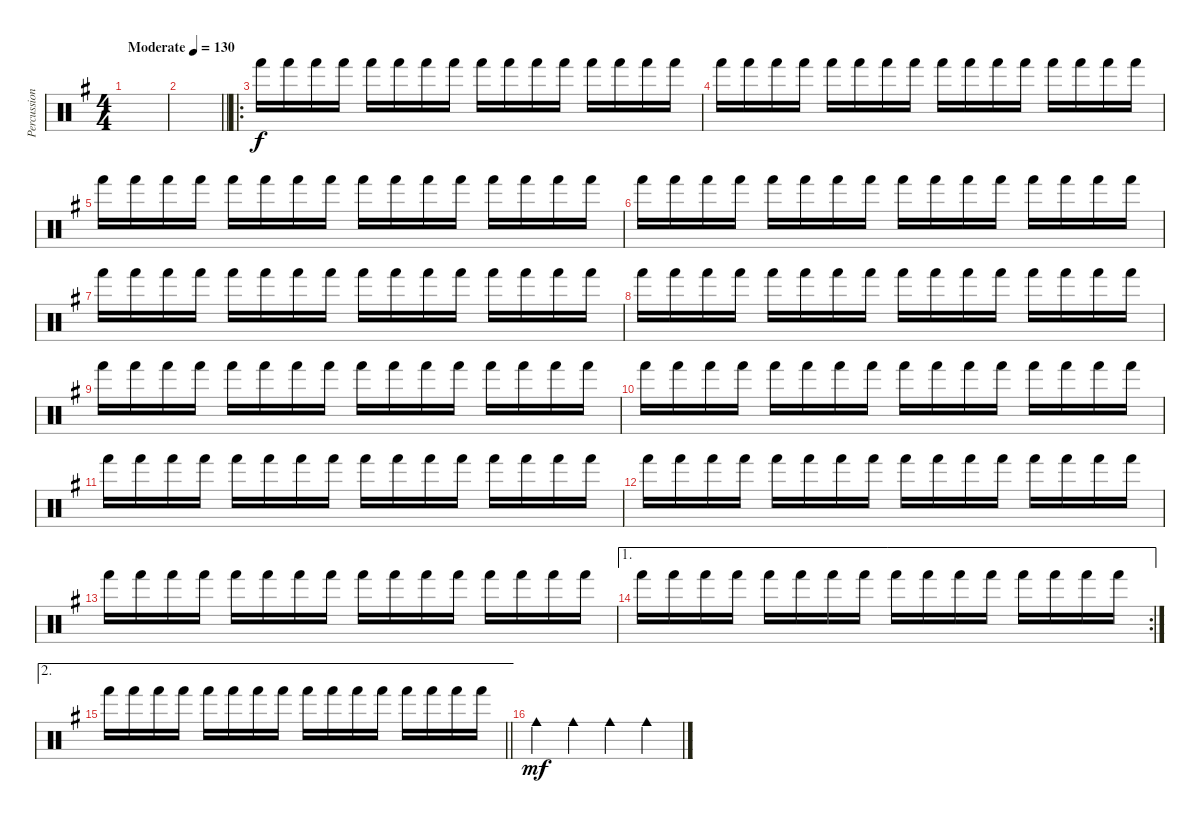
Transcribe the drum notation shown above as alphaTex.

\track ("Percussion" "Percussion") {instrument percussion}
\staff {score}
\articulation defaults
\ts (4 4)
\tempo (130 "Moderate")
\clef neutral
\ks g
|
\barLineRight lightlight
|
\ro "Hand (hit)".16 "Hand (hit)".16 "Hand (hit)".16 "Hand (hit)".16 "Hand (hit)".16 "Hand (hit)".16 "Hand (hit)".16 "Hand (hit)".16 "Hand (hit)".16 "Hand (hit)".16 "Hand (hit)".16 "Hand (hit)".16 "Hand (hit)".16 "Hand (hit)".16 "Hand (hit)".16 "Hand (hit)".16
|
"Hand (hit)".16 "Hand (hit)".16 "Hand (hit)".16 "Hand (hit)".16 "Hand (hit)".16 "Hand (hit)".16 "Hand (hit)".16 "Hand (hit)".16 "Hand (hit)".16 "Hand (hit)".16 "Hand (hit)".16 "Hand (hit)".16 "Hand (hit)".16 "Hand (hit)".16 "Hand (hit)".16 "Hand (hit)".16 |
"Hand (hit)".16 "Hand (hit)".16 "Hand (hit)".16 "Hand (hit)".16 "Hand (hit)".16 "Hand (hit)".16 "Hand (hit)".16 "Hand (hit)".16 "Hand (hit)".16 "Hand (hit)".16 "Hand (hit)".16 "Hand (hit)".16 "Hand (hit)".16 "Hand (hit)".16 "Hand (hit)".16 "Hand (hit)".16 |
"Hand (hit)".16 "Hand (hit)".16 "Hand (hit)".16 "Hand (hit)".16 "Hand (hit)".16 "Hand (hit)".16 "Hand (hit)".16 "Hand (hit)".16 "Hand (hit)".16 "Hand (hit)".16 "Hand (hit)".16 "Hand (hit)".16 "Hand (hit)".16 "Hand (hit)".16 "Hand (hit)".16 "Hand (hit)".16 |
"Hand (hit)".16 "Hand (hit)".16 "Hand (hit)".16 "Hand (hit)".16 "Hand (hit)".16 "Hand (hit)".16 "Hand (hit)".16 "Hand (hit)".16 "Hand (hit)".16 "Hand (hit)".16 "Hand (hit)".16 "Hand (hit)".16 "Hand (hit)".16 "Hand (hit)".16 "Hand (hit)".16 "Hand (hit)".16 |
"Hand (hit)".16 "Hand (hit)".16 "Hand (hit)".16 "Hand (hit)".16 "Hand (hit)".16 "Hand (hit)".16 "Hand (hit)".16 "Hand (hit)".16 "Hand (hit)".16 "Hand (hit)".16 "Hand (hit)".16 "Hand (hit)".16 "Hand (hit)".16 "Hand (hit)".16 "Hand (hit)".16 "Hand (hit)".16 |
"Hand (hit)".16 "Hand (hit)".16 "Hand (hit)".16 "Hand (hit)".16 "Hand (hit)".16 "Hand (hit)".16 "Hand (hit)".16 "Hand (hit)".16 "Hand (hit)".16 "Hand (hit)".16 "Hand (hit)".16 "Hand (hit)".16 "Hand (hit)".16 "Hand (hit)".16 "Hand (hit)".16 "Hand (hit)".16 |
"Hand (hit)".16 "Hand (hit)".16 "Hand (hit)".16 "Hand (hit)".16 "Hand (hit)".16 "Hand (hit)".16 "Hand (hit)".16 "Hand (hit)".16 "Hand (hit)".16 "Hand (hit)".16 "Hand (hit)".16 "Hand (hit)".16 "Hand (hit)".16 "Hand (hit)".16 "Hand (hit)".16 "Hand (hit)".16 |
"Hand (hit)".16 "Hand (hit)".16 "Hand (hit)".16 "Hand (hit)".16 "Hand (hit)".16 "Hand (hit)".16 "Hand (hit)".16 "Hand (hit)".16 "Hand (hit)".16 "Hand (hit)".16 "Hand (hit)".16 "Hand (hit)".16 "Hand (hit)".16 "Hand (hit)".16 "Hand (hit)".16 "Hand (hit)".16 |
"Hand (hit)".16 "Hand (hit)".16 "Hand (hit)".16 "Hand (hit)".16 "Hand (hit)".16 "Hand (hit)".16 "Hand (hit)".16 "Hand (hit)".16 "Hand (hit)".16 "Hand (hit)".16 "Hand (hit)".16 "Hand (hit)".16 "Hand (hit)".16 "Hand (hit)".16 "Hand (hit)".16 "Hand (hit)".16 |
"Hand (hit)".16 "Hand (hit)".16 "Hand (hit)".16 "Hand (hit)".16 "Hand (hit)".16 "Hand (hit)".16 "Hand (hit)".16 "Hand (hit)".16 "Hand (hit)".16 "Hand (hit)".16 "Hand (hit)".16 "Hand (hit)".16 "Hand (hit)".16 "Hand (hit)".16 "Hand (hit)".16 "Hand (hit)".16 |
\ae 1
\rc 2 "Hand (hit)".16 "Hand (hit)".16 "Hand (hit)".16 "Hand (hit)".16 "Hand (hit)".16 "Hand (hit)".16 "Hand (hit)".16 "Hand (hit)".16 "Hand (hit)".16 "Hand (hit)".16 "Hand (hit)".16 "Hand (hit)".16 "Hand (hit)".16 "Hand (hit)".16 "Hand (hit)".16 "Hand (hit)".16
|
\ae 2
\barLineRight lightlight "Hand (hit)".16 "Hand (hit)".16 "Hand (hit)".16 "Hand (hit)".16 "Hand (hit)".16 "Hand (hit)".16 "Hand (hit)".16 "Hand (hit)".16 "Hand (hit)".16 "Hand (hit)".16 "Hand (hit)".16 "Hand (hit)".16 "Hand (hit)".16 "Hand (hit)".16 "Hand (hit)".16 "Hand (hit)".16
|
"Cowbell medium (hit)".4{dy mf} "Cowbell medium (hit)".4 "Cowbell medium (hit)".4 "Cowbell medium (hit)".4
